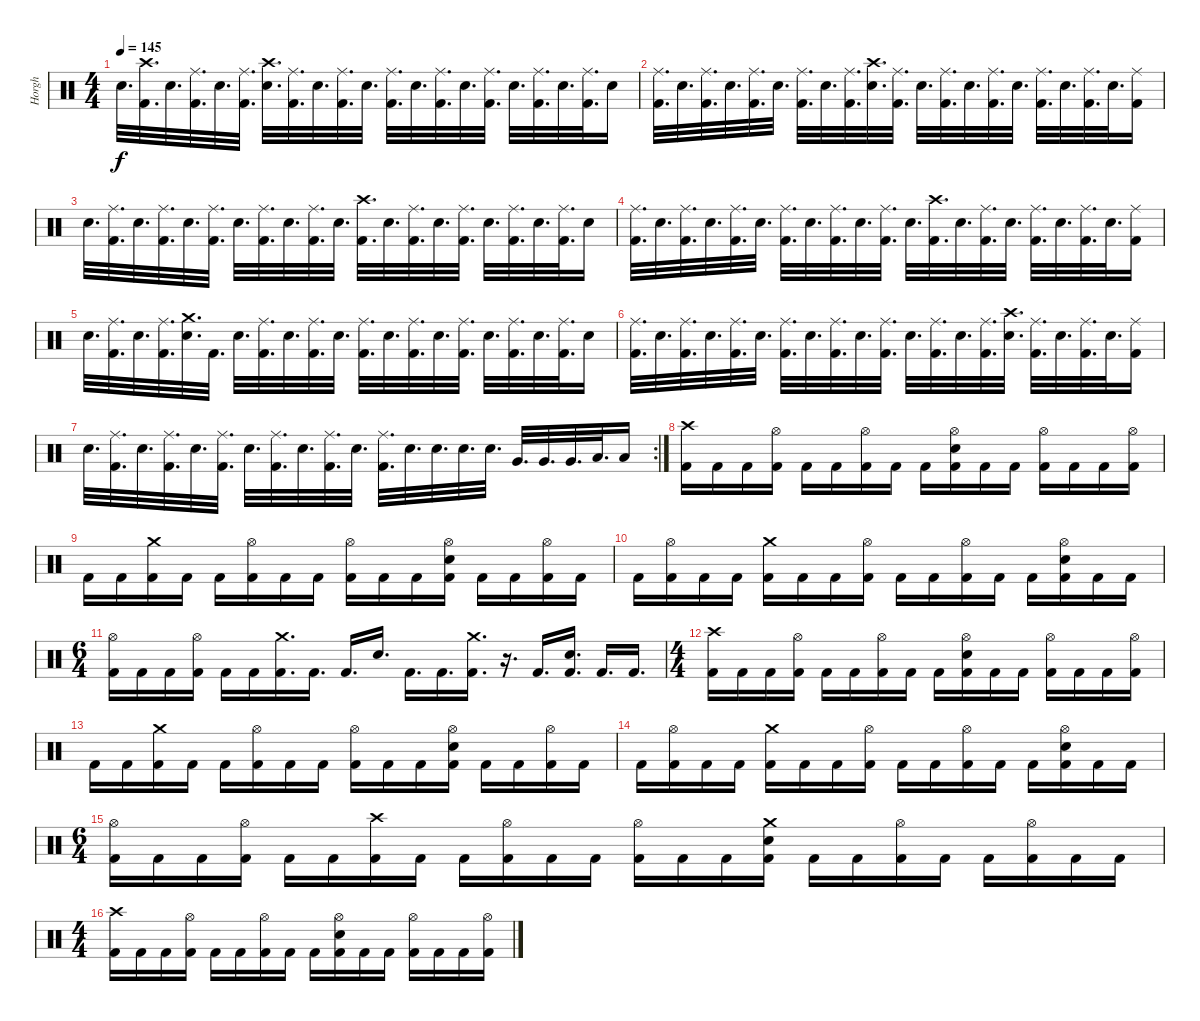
\track ("Horgh" "Horgh") {instrument percussion}
\staff {score}
\articulation defaults
\ts (4 4)
\tempo 145
\clef neutral
\ks c "Electric Snare (hit)".32{d dy f}
("Crash high (hit)" "Kick (hit) 2").32{d} "Electric Snare (hit)".32{d} ("Ride (middle)" "Kick (hit) 2").32{d} "Electric Snare (hit)".32{d} ("Ride (middle)" "Kick (hit) 2").32{d} ("Crash high (hit)" "Electric Snare (hit)").32{d} ("Ride (middle)" "Kick (hit) 2").32{d} "Electric Snare (hit)".32{d} ("Ride (middle)" "Kick (hit) 2").32{d} "Electric Snare (hit)".32{d} ("Ride (middle)" "Kick (hit) 2").32{d} "Electric Snare (hit)".32{d} ("Ride (middle)" "Kick (hit) 2").32{d} "Electric Snare (hit)".32{d} ("Ride (middle)" "Kick (hit) 2").32{d} "Electric Snare (hit)".32{d} ("Ride (middle)" "Kick (hit) 2").32{d} "Electric Snare (hit)".32{d} ("Ride (middle)" "Kick (hit) 2").32{d} "Electric Snare (hit)".16 |
("Ride (middle)" "Kick (hit) 2").32{d} "Electric Snare (hit)".32{d} ("Ride (middle)" "Kick (hit) 2").32{d} "Electric Snare (hit)".32{d} ("Ride (middle)" "Kick (hit) 2").32{d} "Electric Snare (hit)".32{d} ("Ride (middle)" "Kick (hit) 2").32{d} "Electric Snare (hit)".32{d} ("Ride (middle)" "Kick (hit) 2").32{d} ("Crash high (hit)" "Electric Snare (hit)").32{d} ("Ride (middle)" "Kick (hit) 2").32{d} "Electric Snare (hit)".32{d} ("Ride (middle)" "Kick (hit) 2").32{d} "Electric Snare (hit)".32{d} ("Ride (middle)" "Kick (hit) 2").32{d} "Electric Snare (hit)".32{d} ("Ride (middle)" "Kick (hit) 2").32{d} "Electric Snare (hit)".32{d} ("Ride (middle)" "Kick (hit) 2").32{d} "Electric Snare (hit)".32{d} ("Ride (middle)" "Kick (hit) 2").16 |
"Electric Snare (hit)".32{d} ("Ride (middle)" "Kick (hit) 2").32{d} "Electric Snare (hit)".32{d} ("Ride (middle)" "Kick (hit) 2").32{d} "Electric Snare (hit)".32{d} ("Ride (middle)" "Kick (hit) 2").32{d} "Electric Snare (hit)".32{d} ("Ride (middle)" "Kick (hit) 2").32{d} "Electric Snare (hit)".32{d} ("Ride (middle)" "Kick (hit) 2").32{d} "Electric Snare (hit)".32{d} ("Crash high (hit)" "Kick (hit) 2").32{d} "Electric Snare (hit)".32{d} ("Ride (middle)" "Kick (hit) 2").32{d} "Electric Snare (hit)".32{d} ("Ride (middle)" "Kick (hit) 2").32{d} "Electric Snare (hit)".32{d} ("Ride (middle)" "Kick (hit) 2").32{d} "Electric Snare (hit)".32{d} ("Ride (middle)" "Kick (hit) 2").32{d} "Electric Snare (hit)".16 |
("Ride (middle)" "Kick (hit) 2").32{d} "Electric Snare (hit)".32{d} ("Ride (middle)" "Kick (hit) 2").32{d} "Electric Snare (hit)".32{d} ("Ride (middle)" "Kick (hit) 2").32{d} "Electric Snare (hit)".32{d} ("Ride (middle)" "Kick (hit) 2").32{d} "Electric Snare (hit)".32{d} ("Ride (middle)" "Kick (hit) 2").32{d} "Electric Snare (hit)".32{d} ("Ride (middle)" "Kick (hit) 2").32{d} "Electric Snare (hit)".32{d} ("Crash high (hit)" "Kick (hit) 2").32{d} "Electric Snare (hit)".32{d} ("Ride (middle)" "Kick (hit) 2").32{d} "Electric Snare (hit)".32{d} ("Ride (middle)" "Kick (hit) 2").32{d} "Electric Snare (hit)".32{d} ("Ride (middle)" "Kick (hit) 2").32{d} "Electric Snare (hit)".32{d} ("Ride (middle)" "Kick (hit) 2").16 |
"Electric Snare (hit)".32{d} ("Ride (middle)" "Kick (hit) 2").32{d} "Electric Snare (hit)".32{d} ("Ride (middle)" "Kick (hit) 2").32{d} ("Crash medium (hit)" "Electric Snare (hit)").32{d} "Kick (hit) 2".32{d} "Electric Snare (hit)".32{d} ("Ride (middle)" "Kick (hit) 2").32{d} "Electric Snare (hit)".32{d} ("Ride (middle)" "Kick (hit) 2").32{d} "Electric Snare (hit)".32{d} ("Ride (middle)" "Kick (hit) 2").32{d} "Electric Snare (hit)".32{d} ("Ride (middle)" "Kick (hit) 2").32{d} "Electric Snare (hit)".32{d} ("Ride (middle)" "Kick (hit) 2").32{d} "Electric Snare (hit)".32{d} ("Ride (middle)" "Kick (hit) 2").32{d} "Electric Snare (hit)".32{d} ("Ride (middle)" "Kick (hit) 2").32{d} "Electric Snare (hit)".16 |
("Ride (middle)" "Kick (hit) 2").32{d} "Electric Snare (hit)".32{d} ("Ride (middle)" "Kick (hit) 2").32{d} "Electric Snare (hit)".32{d} ("Ride (middle)" "Kick (hit) 2").32{d} "Electric Snare (hit)".32{d} ("Ride (middle)" "Kick (hit) 2").32{d} "Electric Snare (hit)".32{d} ("Ride (middle)" "Kick (hit) 2").32{d} "Electric Snare (hit)".32{d} ("Ride (middle)" "Kick (hit) 2").32{d} "Electric Snare (hit)".32{d} ("Ride (middle)" "Kick (hit) 2").32{d} "Electric Snare (hit)".32{d} ("Ride (middle)" "Kick (hit) 2").32{d} ("Crash high (hit)" "Electric Snare (hit)").32{d} ("Ride (middle)" "Kick (hit) 2").32{d} "Electric Snare (hit)".32{d} ("Ride (middle)" "Kick (hit) 2").32{d} "Electric Snare (hit)".32{d} ("Ride (middle)" "Kick (hit) 2").16 |
\rc 2 "Electric Snare (hit)".32{d}
("Ride (middle)" "Kick (hit) 2").32{d} "Electric Snare (hit)".32{d} ("Ride (middle)" "Kick (hit) 2").32{d} "Electric Snare (hit)".32{d} ("Ride (middle)" "Kick (hit) 2").32{d} "Electric Snare (hit)".32{d} ("Ride (middle)" "Kick (hit) 2").32{d} "Electric Snare (hit)".32{d} ("Ride (middle)" "Kick (hit) 2").32{d} "Electric Snare (hit)".32{d} ("Ride (middle)" "Kick (hit) 2").32{d} "Electric Snare (hit)".32{d} "Electric Snare (hit)".32{d} "Electric Snare (hit)".32{d} "Electric Snare (hit)".32{d} "Very Low Tom (hit)".32{d} "Very Low Tom (hit)".32{d} "Very Low Tom (hit)".32{d} "Low Tom (hit)".32{d} "Low Tom (hit)".16 |
("Crash high (hit)" "Kick (hit) 2").16 "Kick (hit) 2".16 "Kick (hit) 2".16 ("Hi-Hat (open)" "Kick (hit) 2").16 "Kick (hit) 2".16 "Kick (hit) 2".16 ("Hi-Hat (open)" "Kick (hit) 2").16 "Kick (hit) 2".16 "Kick (hit) 2".16 ("Hi-Hat (open)" "Electric Snare (hit)" "Kick (hit) 2").16 "Kick (hit) 2".16 "Kick (hit) 2".16 ("Hi-Hat (open)" "Kick (hit) 2").16 "Kick (hit) 2".16 "Kick (hit) 2".16 ("Hi-Hat (open)" "Kick (hit) 2").16 |
"Kick (hit) 2".16 "Kick (hit) 2".16 ("Crash medium (hit)" "Kick (hit) 2").16 "Kick (hit) 2".16 "Kick (hit) 2".16 ("Hi-Hat (open)" "Kick (hit) 2").16 "Kick (hit) 2".16 "Kick (hit) 2".16 ("Hi-Hat (open)" "Kick (hit) 2").16 "Kick (hit) 2".16 "Kick (hit) 2".16 ("Hi-Hat (open)" "Electric Snare (hit)" "Kick (hit) 2").16 "Kick (hit) 2".16 "Kick (hit) 2".16 ("Hi-Hat (open)" "Kick (hit) 2").16 "Kick (hit) 2".16 |
"Kick (hit) 2".16 ("Hi-Hat (open)" "Kick (hit) 2").16 "Kick (hit) 2".16 "Kick (hit) 2".16 ("Crash medium (hit)" "Kick (hit) 2").16 "Kick (hit) 2".16 "Kick (hit) 2".16 ("Hi-Hat (open)" "Kick (hit) 2").16 "Kick (hit) 2".16 "Kick (hit) 2".16 ("Hi-Hat (open)" "Kick (hit) 2").16 "Kick (hit) 2".16 "Kick (hit) 2".16 ("Hi-Hat (open)" "Electric Snare (hit)" "Kick (hit) 2").16 "Kick (hit) 2".16 "Kick (hit) 2".16 |
\ts (6 4)
("Hi-Hat (open)" "Kick (hit) 2").16 "Kick (hit) 2".16 "Kick (hit) 2".16 ("Hi-Hat (open)" "Kick (hit) 2").16 "Kick (hit) 2".16 "Kick (hit) 2".16 ("Crash medium (hit)" "Kick (hit) 2").16{d} "Kick (hit) 2".16{d} "Kick (hit) 2".16{d} "Electric Snare (hit)".16{d} "Kick (hit) 2".16{d} "Kick (hit) 2".16{d} ("Crash medium (hit)" "Kick (hit) 2").16{d} r.16{d} "Kick (hit) 2".16{d} ("Electric Snare (hit)" "Kick (hit) 2").16{d} "Kick (hit) 2".16{d} "Kick (hit) 2".16{d} |
\ts (4 4)
("Crash high (hit)" "Kick (hit) 2").16 "Kick (hit) 2".16 "Kick (hit) 2".16 ("Hi-Hat (open)" "Kick (hit) 2").16 "Kick (hit) 2".16 "Kick (hit) 2".16 ("Hi-Hat (open)" "Kick (hit) 2").16 "Kick (hit) 2".16 "Kick (hit) 2".16 ("Hi-Hat (open)" "Electric Snare (hit)" "Kick (hit) 2").16 "Kick (hit) 2".16 "Kick (hit) 2".16 ("Hi-Hat (open)" "Kick (hit) 2").16 "Kick (hit) 2".16 "Kick (hit) 2".16 ("Hi-Hat (open)" "Kick (hit) 2").16 |
"Kick (hit) 2".16 "Kick (hit) 2".16 ("Crash medium (hit)" "Kick (hit) 2").16 "Kick (hit) 2".16 "Kick (hit) 2".16 ("Hi-Hat (open)" "Kick (hit) 2").16 "Kick (hit) 2".16 "Kick (hit) 2".16 ("Hi-Hat (open)" "Kick (hit) 2").16 "Kick (hit) 2".16 "Kick (hit) 2".16 ("Hi-Hat (open)" "Electric Snare (hit)" "Kick (hit) 2").16 "Kick (hit) 2".16 "Kick (hit) 2".16 ("Hi-Hat (open)" "Kick (hit) 2").16 "Kick (hit) 2".16 |
"Kick (hit) 2".16 ("Hi-Hat (open)" "Kick (hit) 2").16 "Kick (hit) 2".16 "Kick (hit) 2".16 ("Crash medium (hit)" "Kick (hit) 2").16 "Kick (hit) 2".16 "Kick (hit) 2".16 ("Hi-Hat (open)" "Kick (hit) 2").16 "Kick (hit) 2".16 "Kick (hit) 2".16 ("Hi-Hat (open)" "Kick (hit) 2").16 "Kick (hit) 2".16 "Kick (hit) 2".16 ("Hi-Hat (open)" "Electric Snare (hit)" "Kick (hit) 2").16 "Kick (hit) 2".16 "Kick (hit) 2".16 |
\ts (6 4)
("Hi-Hat (open)" "Kick (hit) 2").16 "Kick (hit) 2".16 "Kick (hit) 2".16 ("Hi-Hat (open)" "Kick (hit) 2").16 "Kick (hit) 2".16 "Kick (hit) 2".16 ("Crash high (hit)" "Kick (hit) 2").16 "Kick (hit) 2".16 "Kick (hit) 2".16 ("Hi-Hat (open)" "Kick (hit) 2").16 "Kick (hit) 2".16 "Kick (hit) 2".16 ("Hi-Hat (open)" "Kick (hit) 2").16 "Kick (hit) 2".16 "Kick (hit) 2".16 ("Crash medium (hit)" "Electric Snare (hit)" "Kick (hit) 2").16 "Kick (hit) 2".16 "Kick (hit) 2".16 ("Hi-Hat (open)" "Kick (hit) 2").16 "Kick (hit) 2".16 "Kick (hit) 2".16 ("Hi-Hat (open)" "Kick (hit) 2").16 "Kick (hit) 2".16 "Kick (hit) 2".16 |
\ts (4 4)
("Crash high (hit)" "Kick (hit) 2").16 "Kick (hit) 2".16 "Kick (hit) 2".16 ("Hi-Hat (open)" "Kick (hit) 2").16 "Kick (hit) 2".16 "Kick (hit) 2".16 ("Hi-Hat (open)" "Kick (hit) 2").16 "Kick (hit) 2".16 "Kick (hit) 2".16 ("Hi-Hat (open)" "Electric Snare (hit)" "Kick (hit) 2").16 "Kick (hit) 2".16 "Kick (hit) 2".16 ("Hi-Hat (open)" "Kick (hit) 2").16 "Kick (hit) 2".16 "Kick (hit) 2".16 ("Hi-Hat (open)" "Kick (hit) 2").16
